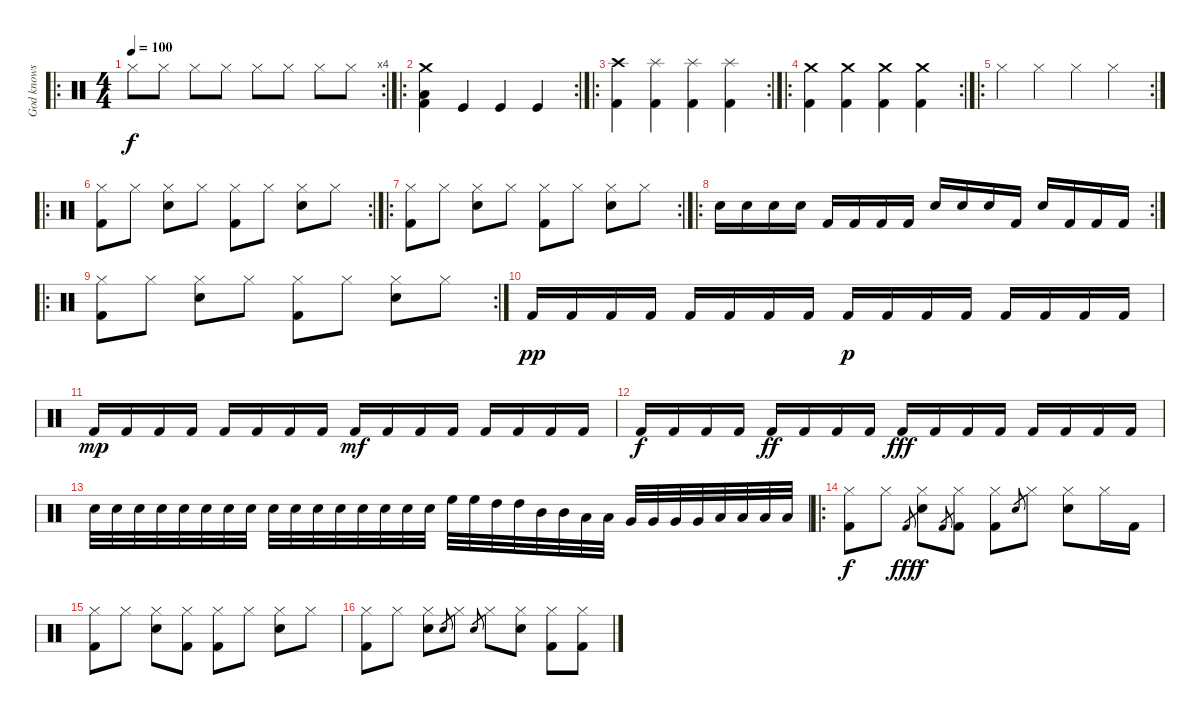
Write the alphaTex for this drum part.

\track ("God knows" "God knows") {instrument percussion}
\staff {score}
\articulation defaults
\ro
\rc 4
\ts (4 4)
\tempo 100
\clef neutral
\ks c "Hi-Hat (closed)".8{dy f} "Hi-Hat (closed)".8 "Hi-Hat (closed)".8 "Hi-Hat (closed)".8 "Hi-Hat (closed)".8 "Hi-Hat (closed)".8 "Hi-Hat (closed)".8 "Hi-Hat (closed)".8
|
\ro
\rc 2
("Crash medium (hit)" "Kick (hit) 2" "Low Floor Tom (hit)").4 "Kick (hit)".4 "Kick (hit)".4 "Kick (hit)".4 |
\ro
\rc 2
("Crash high (hit)" "Kick (hit) 2").4 ("Kick (hit) 2" "Splash (hit)").4 ("Kick (hit) 2" "Splash (hit)").4 ("Kick (hit) 2" "Splash (hit)").4 |
\ro
\rc 2
("Kick (hit) 2" "Crash medium (hit)").4 ("Kick (hit) 2" "Crash medium (hit)").4 ("Kick (hit) 2" "Crash medium (hit)").4 ("Kick (hit) 2" "Crash medium (hit)").4 |
\ro
\rc 2 "Hi-Hat (closed)".4 "Hi-Hat (closed)".4 "Hi-Hat (closed)".4 "Hi-Hat (closed)".4
|
\ro
\rc 2
("Hi-Hat (closed)" "Kick (hit) 2").8 "Hi-Hat (closed)".8 ("Hi-Hat (closed)" "Snare (hit) 2").8 "Hi-Hat (closed)".8 ("Hi-Hat (closed)" "Kick (hit) 2").8 "Hi-Hat (closed)".8 ("Hi-Hat (closed)" "Snare (hit) 2").8 "Hi-Hat (closed)".8 |
\ro
\rc 2
("Hi-Hat (closed)" "Kick (hit) 2").8 "Hi-Hat (closed)".8 ("Hi-Hat (closed)" "Snare (hit) 2").8 "Hi-Hat (closed)".8 ("Hi-Hat (closed)" "Kick (hit) 2").8 "Hi-Hat (closed)".8 ("Hi-Hat (closed)" "Snare (hit) 2").8 "Hi-Hat (closed)".8 |
\ro
\rc 2 "Snare (hit) 2".16 "Snare (hit) 2".16 "Snare (hit) 2".16 "Snare (hit) 2".16 "Kick (hit) 2".16 "Kick (hit) 2".16 "Kick (hit) 2".16 "Kick (hit) 2".16 "Snare (hit) 2".16 "Snare (hit) 2".16 "Snare (hit) 2".16 "Kick (hit) 2".16 "Snare (hit) 2".16 "Kick (hit) 2".16 "Kick (hit) 2".16 "Kick (hit) 2".16
|
\ro
\rc 2
("Hi-Hat (closed)" "Kick (hit) 2").8 "Hi-Hat (closed)".8 ("Hi-Hat (closed)" "Snare (hit) 2").8 "Hi-Hat (closed)".8 ("Hi-Hat (closed)" "Kick (hit) 2").8 "Hi-Hat (closed)".8 ("Hi-Hat (closed)" "Snare (hit) 2").8 "Hi-Hat (closed)".8 |
"Kick (hit) 2".16{dy pp} "Kick (hit) 2".16 "Kick (hit) 2".16 "Kick (hit) 2".16 "Kick (hit) 2".16 "Kick (hit) 2".16 "Kick (hit) 2".16 "Kick (hit) 2".16 "Kick (hit) 2".16{dy p} "Kick (hit) 2".16 "Kick (hit) 2".16 "Kick (hit) 2".16 "Kick (hit) 2".16 "Kick (hit) 2".16 "Kick (hit) 2".16 "Kick (hit) 2".16 |
"Kick (hit) 2".16{dy mp} "Kick (hit) 2".16 "Kick (hit) 2".16 "Kick (hit) 2".16 "Kick (hit) 2".16 "Kick (hit) 2".16 "Kick (hit) 2".16 "Kick (hit) 2".16 "Kick (hit) 2".16{dy mf} "Kick (hit) 2".16 "Kick (hit) 2".16 "Kick (hit) 2".16 "Kick (hit) 2".16 "Kick (hit) 2".16 "Kick (hit) 2".16 "Kick (hit) 2".16 |
"Kick (hit) 2".16{dy f} "Kick (hit) 2".16 "Kick (hit) 2".16 "Kick (hit) 2".16 "Kick (hit) 2".16{dy ff} "Kick (hit) 2".16 "Kick (hit) 2".16 "Kick (hit) 2".16 "Kick (hit) 2".16{dy fff} "Kick (hit) 2".16 "Kick (hit) 2".16 "Kick (hit) 2".16 "Kick (hit) 2".16 "Kick (hit) 2".16 "Kick (hit) 2".16 "Kick (hit) 2".16 |
"Snare (hit) 2".32 "Snare (hit) 2".32 "Snare (hit) 2".32 "Snare (hit) 2".32 "Snare (hit) 2".32 "Snare (hit) 2".32 "Snare (hit) 2".32 "Snare (hit) 2".32 "Snare (hit) 2".32 "Snare (hit) 2".32 "Snare (hit) 2".32 "Snare (hit) 2".32 "Snare (hit) 2".32 "Snare (hit) 2".32 "Snare (hit) 2".32 "Snare (hit) 2".32 "High Floor Tom (hit)".32 "High Floor Tom (hit)".32 "High Tom (hit)".32 "High Tom (hit)".32 "Mid Tom (hit)".32 "Mid Tom (hit)".32 "Low Tom (hit)".32 "Low Tom (hit)".32 "Very Low Tom (hit)".32 "Very Low Tom (hit)".32 "Very Low Tom (hit)".32 "Very Low Tom (hit)".32 "Low Floor Tom (hit)".32 "Low Floor Tom (hit)".32 "Low Floor Tom (hit)".32 "Low Floor Tom (hit)".32 |
\ro
("Hi-Hat (closed)" "Kick (hit) 2").8{dy f} "Hi-Hat (closed)".8 "Kick (hit) 2".8{gr dy fff} ("Hi-Hat (closed)" "Snare (hit) 2").8{dy f} "Kick (hit) 2".8{gr} ("Hi-Hat (closed)" "Kick (hit) 2").8 ("Hi-Hat (closed)" "Kick (hit) 2").8 "Snare (hit) 2".8{gr} "Hi-Hat (closed)".8 ("Hi-Hat (closed)" "Snare (hit) 2").8 "Hi-Hat (closed)".16 "Kick (hit) 2".16 |
("Hi-Hat (closed)" "Kick (hit) 2").8 "Hi-Hat (closed)".8 ("Hi-Hat (closed)" "Snare (hit) 2").8 ("Hi-Hat (closed)" "Kick (hit) 2").8 ("Hi-Hat (closed)" "Kick (hit) 2").8 "Hi-Hat (closed)".8 ("Hi-Hat (closed)" "Snare (hit) 2").8 "Hi-Hat (closed)".8 |
("Hi-Hat (closed)" "Kick (hit) 2").8 "Hi-Hat (closed)".8 ("Hi-Hat (closed)" "Snare (hit) 2").8 "Snare (hit) 2".8{gr} "Hi-Hat (closed)".8 "Snare (hit) 2".8{gr} "Hi-Hat (closed)".8 ("Hi-Hat (closed)" "Snare (hit) 2").8 ("Hi-Hat (closed)" "Kick (hit) 2").8 ("Hi-Hat (closed)" "Kick (hit) 2").8
